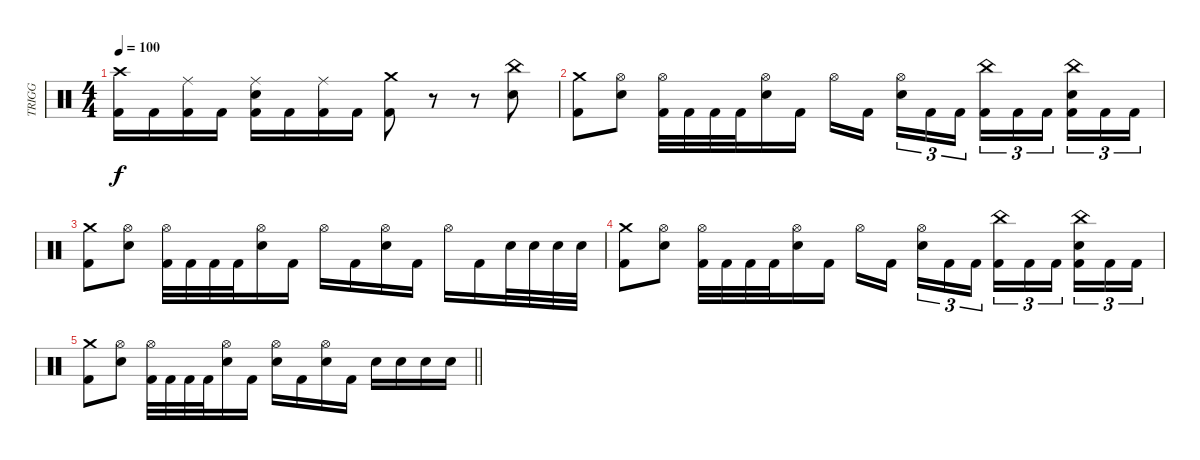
\track ("TRIGG" "TRIGG") {instrument percussion}
\staff {score}
\articulation defaults
\ts (4 4)
\tempo 100
\clef neutral
\ks c
("Crash high (hit)" "Kick (hit) 2").16{dy f} "Kick (hit) 2".16 ("Ride (middle)" "Kick (hit) 2").16 "Kick (hit) 2".16 ("Ride (middle)" "Electric Snare (hit)" "Kick (hit) 2").16 "Kick (hit) 2".16 ("Ride (middle)" "Kick (hit) 2").16 "Kick (hit) 2".16 ("Crash medium (hit)" "Kick (hit) 2").8 r.8 r.8 ("Electric Snare (hit)" "China (hit)").8 |
("Crash medium (hit)" "Kick (hit) 2").8 ("Hi-Hat (open)" "Electric Snare (hit)").8 ("Hi-Hat (open)" "Kick (hit) 2").32 "Kick (hit) 2".32 "Kick (hit) 2".32 "Kick (hit) 2".32 ("Hi-Hat (open)" "Electric Snare (hit)").16 "Kick (hit) 2".16 "Hi-Hat (open)".16 "Kick (hit) 2".16{beam splitsecondary} ("Hi-Hat (open)" "Electric Snare (hit)").16{tu (3 2)} "Kick (hit) 2".16{tu (3 2)} "Kick (hit) 2".16{tu (3 2)} ("China (hit)" "Kick (hit) 2").16{tu (3 2)} "Kick (hit) 2".16{tu (3 2)} "Kick (hit) 2".16{tu (3 2) beam splitsecondary} ("China (hit)" "Electric Snare (hit)" "Kick (hit) 2").16{tu (3 2)} "Kick (hit) 2".16{tu (3 2)} "Kick (hit) 2".16{tu (3 2)} |
("Crash medium (hit)" "Kick (hit) 2").8 ("Hi-Hat (open)" "Electric Snare (hit)").8 ("Hi-Hat (open)" "Kick (hit) 2").32 "Kick (hit) 2".32 "Kick (hit) 2".32 "Kick (hit) 2".32 ("Hi-Hat (open)" "Electric Snare (hit)").16 "Kick (hit) 2".16 "Hi-Hat (open)".16 "Kick (hit) 2".16 ("Hi-Hat (open)" "Electric Snare (hit)").16 "Kick (hit) 2".16 "Hi-Hat (open)".16 "Kick (hit) 2".16 "Electric Snare (hit)".32 "Electric Snare (hit)".32 "Electric Snare (hit)".32 "Electric Snare (hit)".32 |
("Crash medium (hit)" "Kick (hit) 2").8 ("Hi-Hat (open)" "Electric Snare (hit)").8 ("Hi-Hat (open)" "Kick (hit) 2").32 "Kick (hit) 2".32 "Kick (hit) 2".32 "Kick (hit) 2".32 ("Hi-Hat (open)" "Electric Snare (hit)").16 "Kick (hit) 2".16 "Hi-Hat (open)".16 "Kick (hit) 2".16{beam splitsecondary} ("Hi-Hat (open)" "Electric Snare (hit)").16{tu (3 2)} "Kick (hit) 2".16{tu (3 2)} "Kick (hit) 2".16{tu (3 2)} ("China (hit)" "Kick (hit) 2").16{tu (3 2)} "Kick (hit) 2".16{tu (3 2)} "Kick (hit) 2".16{tu (3 2) beam splitsecondary} ("China (hit)" "Electric Snare (hit)" "Kick (hit) 2").16{tu (3 2)} "Kick (hit) 2".16{tu (3 2)} "Kick (hit) 2".16{tu (3 2)} |
\barLineRight lightlight
("Crash medium (hit)" "Kick (hit) 2").8 ("Hi-Hat (open)" "Electric Snare (hit)").8 ("Hi-Hat (open)" "Kick (hit) 2").32 "Kick (hit) 2".32 "Kick (hit) 2".32 "Kick (hit) 2".32 ("Hi-Hat (open)" "Electric Snare (hit)").16 "Kick (hit) 2".16 ("Hi-Hat (open)" "Electric Snare (hit)").16 "Kick (hit) 2".16 ("Hi-Hat (open)" "Electric Snare (hit)").16 "Kick (hit) 2".16 "Electric Snare (hit)".16 "Electric Snare (hit)".16 "Electric Snare (hit)".16 "Electric Snare (hit)".16
